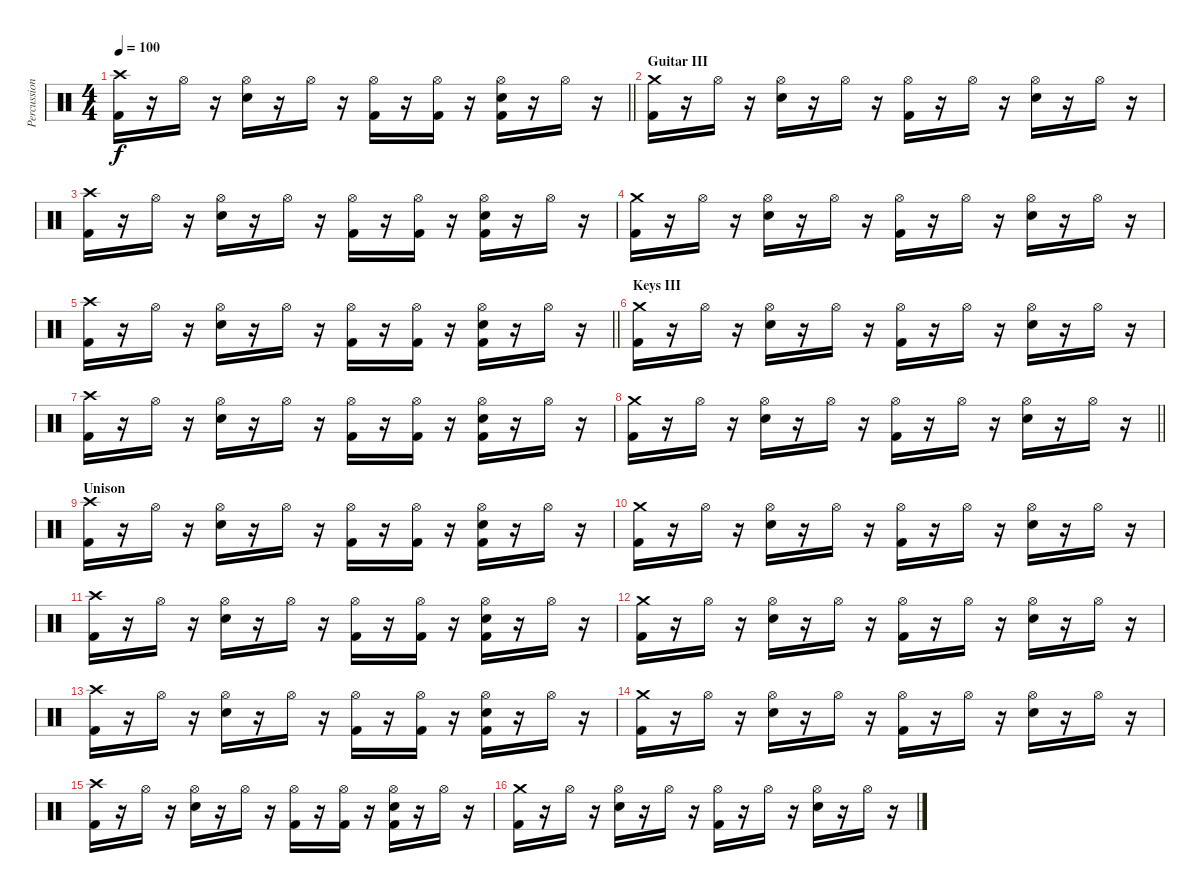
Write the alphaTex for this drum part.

\track ("Percussion" "Percussion") {instrument percussion}
\staff {score}
\articulation defaults
\ts (4 4)
\tempo 100
\clef neutral
\barLineRight lightlight
\ks c
("Crash high (hit)" "Kick (hit) 2").16{dy f} r.16 "Hi-Hat (open)".16 r.16 ("Hi-Hat (open)" "Electric Snare (hit)").16 r.16 "Hi-Hat (open)".16 r.16 ("Hi-Hat (open)" "Kick (hit) 2").16 r.16 ("Hi-Hat (open)" "Kick (hit) 2").16 r.16 ("Hi-Hat (open)" "Electric Snare (hit)" "Kick (hit) 2").16 r.16 "Hi-Hat (open)".16 r.16 |
\section ("" "Guitar III")
("Crash medium (hit)" "Kick (hit) 2").16 r.16 "Hi-Hat (open)".16 r.16 ("Hi-Hat (open)" "Electric Snare (hit)").16 r.16 "Hi-Hat (open)".16 r.16 ("Hi-Hat (open)" "Kick (hit) 2").16 r.16 "Hi-Hat (open)".16 r.16 ("Hi-Hat (open)" "Electric Snare (hit)").16 r.16 "Hi-Hat (open)".16 r.16 |
("Crash high (hit)" "Kick (hit) 2").16 r.16 "Hi-Hat (open)".16 r.16 ("Hi-Hat (open)" "Electric Snare (hit)").16 r.16 "Hi-Hat (open)".16 r.16 ("Hi-Hat (open)" "Kick (hit) 2").16 r.16 ("Hi-Hat (open)" "Kick (hit) 2").16 r.16 ("Hi-Hat (open)" "Electric Snare (hit)" "Kick (hit) 2").16 r.16 "Hi-Hat (open)".16 r.16 |
("Crash medium (hit)" "Kick (hit) 2").16 r.16 "Hi-Hat (open)".16 r.16 ("Hi-Hat (open)" "Electric Snare (hit)").16 r.16 "Hi-Hat (open)".16 r.16 ("Hi-Hat (open)" "Kick (hit) 2").16 r.16 "Hi-Hat (open)".16 r.16 ("Hi-Hat (open)" "Electric Snare (hit)").16 r.16 "Hi-Hat (open)".16 r.16 |
\barLineRight lightlight
("Crash high (hit)" "Kick (hit) 2").16 r.16 "Hi-Hat (open)".16 r.16 ("Hi-Hat (open)" "Electric Snare (hit)").16 r.16 "Hi-Hat (open)".16 r.16 ("Hi-Hat (open)" "Kick (hit) 2").16 r.16 ("Hi-Hat (open)" "Kick (hit) 2").16 r.16 ("Hi-Hat (open)" "Electric Snare (hit)" "Kick (hit) 2").16 r.16 "Hi-Hat (open)".16 r.16 |
\section ("" "Keys III")
("Crash medium (hit)" "Kick (hit) 2").16 r.16 "Hi-Hat (open)".16 r.16 ("Hi-Hat (open)" "Electric Snare (hit)").16 r.16 "Hi-Hat (open)".16 r.16 ("Hi-Hat (open)" "Kick (hit) 2").16 r.16 "Hi-Hat (open)".16 r.16 ("Hi-Hat (open)" "Electric Snare (hit)").16 r.16 "Hi-Hat (open)".16 r.16 |
("Crash high (hit)" "Kick (hit) 2").16 r.16 "Hi-Hat (open)".16 r.16 ("Hi-Hat (open)" "Electric Snare (hit)").16 r.16 "Hi-Hat (open)".16 r.16 ("Hi-Hat (open)" "Kick (hit) 2").16 r.16 ("Hi-Hat (open)" "Kick (hit) 2").16 r.16 ("Hi-Hat (open)" "Electric Snare (hit)" "Kick (hit) 2").16 r.16 "Hi-Hat (open)".16 r.16 |
\barLineRight lightlight
("Crash medium (hit)" "Kick (hit) 2").16 r.16 "Hi-Hat (open)".16 r.16 ("Hi-Hat (open)" "Electric Snare (hit)").16 r.16 "Hi-Hat (open)".16 r.16 ("Hi-Hat (open)" "Kick (hit) 2").16 r.16 "Hi-Hat (open)".16 r.16 ("Hi-Hat (open)" "Electric Snare (hit)").16 r.16 "Hi-Hat (open)".16 r.16 |
\section ("" "Unison")
("Crash high (hit)" "Kick (hit) 2").16 r.16 "Hi-Hat (open)".16 r.16 ("Hi-Hat (open)" "Electric Snare (hit)").16 r.16 "Hi-Hat (open)".16 r.16 ("Hi-Hat (open)" "Kick (hit) 2").16 r.16 ("Hi-Hat (open)" "Kick (hit) 2").16 r.16 ("Hi-Hat (open)" "Electric Snare (hit)" "Kick (hit) 2").16 r.16 "Hi-Hat (open)".16 r.16 |
("Crash medium (hit)" "Kick (hit) 2").16 r.16 "Hi-Hat (open)".16 r.16 ("Hi-Hat (open)" "Electric Snare (hit)").16 r.16 "Hi-Hat (open)".16 r.16 ("Hi-Hat (open)" "Kick (hit) 2").16 r.16 "Hi-Hat (open)".16 r.16 ("Hi-Hat (open)" "Electric Snare (hit)").16 r.16 "Hi-Hat (open)".16 r.16 |
("Crash high (hit)" "Kick (hit) 2").16 r.16 "Hi-Hat (open)".16 r.16 ("Hi-Hat (open)" "Electric Snare (hit)").16 r.16 "Hi-Hat (open)".16 r.16 ("Hi-Hat (open)" "Kick (hit) 2").16 r.16 ("Hi-Hat (open)" "Kick (hit) 2").16 r.16 ("Hi-Hat (open)" "Electric Snare (hit)" "Kick (hit) 2").16 r.16 "Hi-Hat (open)".16 r.16 |
("Crash medium (hit)" "Kick (hit) 2").16 r.16 "Hi-Hat (open)".16 r.16 ("Hi-Hat (open)" "Electric Snare (hit)").16 r.16 "Hi-Hat (open)".16 r.16 ("Hi-Hat (open)" "Kick (hit) 2").16 r.16 "Hi-Hat (open)".16 r.16 ("Hi-Hat (open)" "Electric Snare (hit)").16 r.16 "Hi-Hat (open)".16 r.16 |
("Crash high (hit)" "Kick (hit) 2").16 r.16 "Hi-Hat (open)".16 r.16 ("Hi-Hat (open)" "Electric Snare (hit)").16 r.16 "Hi-Hat (open)".16 r.16 ("Hi-Hat (open)" "Kick (hit) 2").16 r.16 ("Hi-Hat (open)" "Kick (hit) 2").16 r.16 ("Hi-Hat (open)" "Electric Snare (hit)" "Kick (hit) 2").16 r.16 "Hi-Hat (open)".16 r.16 |
("Crash medium (hit)" "Kick (hit) 2").16 r.16 "Hi-Hat (open)".16 r.16 ("Hi-Hat (open)" "Electric Snare (hit)").16 r.16 "Hi-Hat (open)".16 r.16 ("Hi-Hat (open)" "Kick (hit) 2").16 r.16 "Hi-Hat (open)".16 r.16 ("Hi-Hat (open)" "Electric Snare (hit)").16 r.16 "Hi-Hat (open)".16 r.16 |
("Crash high (hit)" "Kick (hit) 2").16 r.16 "Hi-Hat (open)".16 r.16 ("Hi-Hat (open)" "Electric Snare (hit)").16 r.16 "Hi-Hat (open)".16 r.16 ("Hi-Hat (open)" "Kick (hit) 2").16 r.16 ("Hi-Hat (open)" "Kick (hit) 2").16 r.16 ("Hi-Hat (open)" "Electric Snare (hit)" "Kick (hit) 2").16 r.16 "Hi-Hat (open)".16 r.16 |
("Crash medium (hit)" "Kick (hit) 2").16 r.16 "Hi-Hat (open)".16 r.16 ("Hi-Hat (open)" "Electric Snare (hit)").16 r.16 "Hi-Hat (open)".16 r.16 ("Hi-Hat (open)" "Kick (hit) 2").16 r.16 "Hi-Hat (open)".16 r.16 ("Hi-Hat (open)" "Electric Snare (hit)").16 r.16 "Hi-Hat (open)".16 r.16
